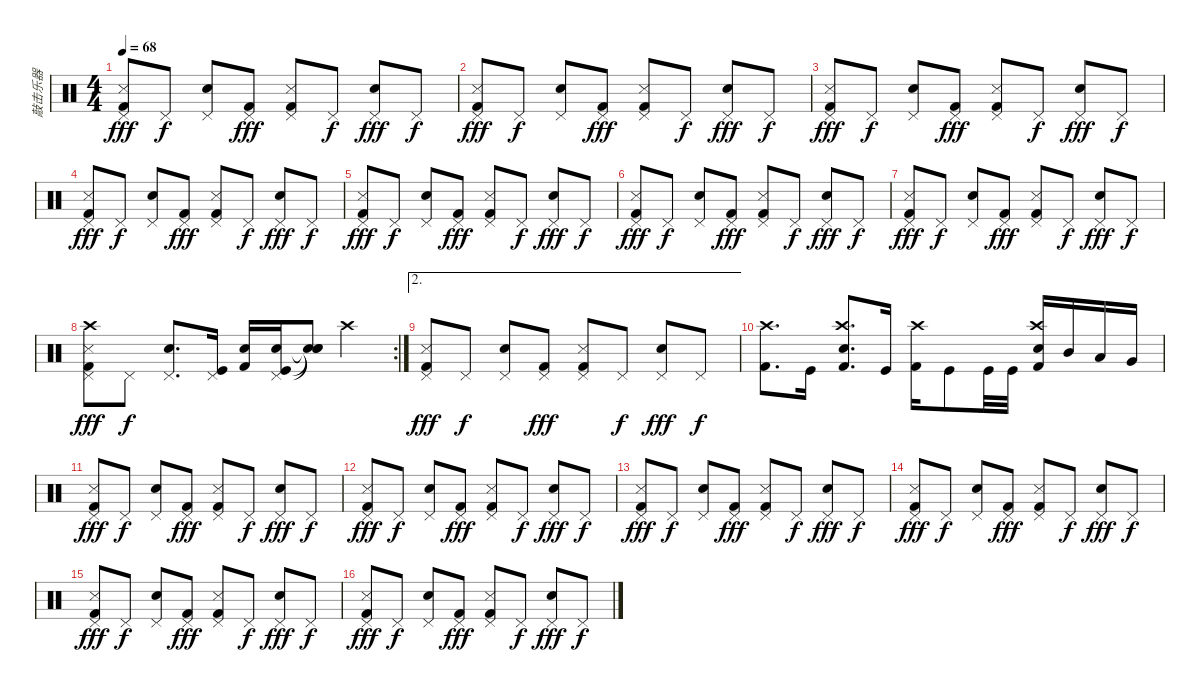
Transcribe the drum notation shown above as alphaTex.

\track ("敲击乐器" "敲击乐器") {instrument percussion}
\staff {score}
\articulation defaults
\ts (4 4)
\tempo 68
\clef neutral
\ks c
("Snare (side stick) 3" "Pedal Hi-Hat (hit)" "Kick (hit) 2").8{dy fff} "Pedal Hi-Hat (hit)".8{dy f} ("Hand Clap (hit)" "Pedal Hi-Hat (hit)").8 ("Pedal Hi-Hat (hit)" "Kick (hit) 2").8{dy fff} ("Snare (side stick) 3" "Pedal Hi-Hat (hit)" "Kick (hit) 2").8 "Pedal Hi-Hat (hit)".8{dy f} ("Hand Clap (hit)" "Pedal Hi-Hat (hit)").8{dy fff} "Pedal Hi-Hat (hit)".8{dy f} |
("Snare (side stick) 3" "Pedal Hi-Hat (hit)" "Kick (hit) 2").8{dy fff} "Pedal Hi-Hat (hit)".8{dy f} ("Hand Clap (hit)" "Pedal Hi-Hat (hit)").8 ("Pedal Hi-Hat (hit)" "Kick (hit) 2").8{dy fff} ("Snare (side stick) 3" "Pedal Hi-Hat (hit)" "Kick (hit) 2").8 "Pedal Hi-Hat (hit)".8{dy f} ("Hand Clap (hit)" "Pedal Hi-Hat (hit)").8{dy fff} "Pedal Hi-Hat (hit)".8{dy f} |
("Snare (side stick) 3" "Pedal Hi-Hat (hit)" "Kick (hit) 2").8{dy fff} "Pedal Hi-Hat (hit)".8{dy f} ("Hand Clap (hit)" "Pedal Hi-Hat (hit)").8 ("Pedal Hi-Hat (hit)" "Kick (hit) 2").8{dy fff} ("Snare (side stick) 3" "Pedal Hi-Hat (hit)" "Kick (hit) 2").8 "Pedal Hi-Hat (hit)".8{dy f} ("Hand Clap (hit)" "Pedal Hi-Hat (hit)").8{dy fff} "Pedal Hi-Hat (hit)".8{dy f} |
("Snare (side stick) 3" "Pedal Hi-Hat (hit)" "Kick (hit) 2").8{dy fff} "Pedal Hi-Hat (hit)".8{dy f} ("Hand Clap (hit)" "Pedal Hi-Hat (hit)").8 ("Pedal Hi-Hat (hit)" "Kick (hit) 2").8{dy fff} ("Snare (side stick) 3" "Pedal Hi-Hat (hit)" "Kick (hit) 2").8 "Pedal Hi-Hat (hit)".8{dy f} ("Hand Clap (hit)" "Pedal Hi-Hat (hit)").8{dy fff} "Pedal Hi-Hat (hit)".8{dy f} |
("Snare (side stick) 3" "Pedal Hi-Hat (hit)" "Kick (hit) 2").8{dy fff} "Pedal Hi-Hat (hit)".8{dy f} ("Hand Clap (hit)" "Pedal Hi-Hat (hit)").8 ("Pedal Hi-Hat (hit)" "Kick (hit) 2").8{dy fff} ("Snare (side stick) 3" "Pedal Hi-Hat (hit)" "Kick (hit) 2").8 "Pedal Hi-Hat (hit)".8{dy f} ("Hand Clap (hit)" "Pedal Hi-Hat (hit)").8{dy fff} "Pedal Hi-Hat (hit)".8{dy f} |
("Snare (side stick) 3" "Pedal Hi-Hat (hit)" "Kick (hit) 2").8{dy fff} "Pedal Hi-Hat (hit)".8{dy f} ("Hand Clap (hit)" "Pedal Hi-Hat (hit)").8 ("Pedal Hi-Hat (hit)" "Kick (hit) 2").8{dy fff} ("Snare (side stick) 3" "Pedal Hi-Hat (hit)" "Kick (hit) 2").8 "Pedal Hi-Hat (hit)".8{dy f} ("Hand Clap (hit)" "Pedal Hi-Hat (hit)").8{dy fff} "Pedal Hi-Hat (hit)".8{dy f} |
("Snare (side stick) 3" "Pedal Hi-Hat (hit)" "Kick (hit) 2").8{dy fff} "Pedal Hi-Hat (hit)".8{dy f} ("Hand Clap (hit)" "Pedal Hi-Hat (hit)").8 ("Pedal Hi-Hat (hit)" "Kick (hit) 2").8{dy fff} ("Snare (side stick) 3" "Pedal Hi-Hat (hit)" "Kick (hit) 2").8 "Pedal Hi-Hat (hit)".8{dy f} ("Hand Clap (hit)" "Pedal Hi-Hat (hit)").8{dy fff} "Pedal Hi-Hat (hit)".8{dy f} |
\rc 2
("Crash high (hit)" "Snare (side stick) 3" "Pedal Hi-Hat (hit)" "Kick (hit) 2").8{dy fff} "Pedal Hi-Hat (hit)".8{dy f} ("Hand Clap (hit)" "Pedal Hi-Hat (hit)").8{d} ("Pedal Hi-Hat (hit)" "Kick (hit)").16 ("Snare (hit) 2" "Kick (hit) 2").16 ("Snare (hit) 2" "Pedal Hi-Hat (hit)" "Kick (hit)").16 ("Snare (hit)"{t} "Snare (hit)"{t} "Snare (hit)"{t}).8 "Crash high (hit)".4 |
\ae 2
("Snare (side stick) 3" "Pedal Hi-Hat (hit)" "Kick (hit) 2").8{dy fff} "Pedal Hi-Hat (hit)".8{dy f} ("Hand Clap (hit)" "Pedal Hi-Hat (hit)").8 ("Pedal Hi-Hat (hit)" "Kick (hit) 2").8{dy fff} ("Snare (side stick) 3" "Pedal Hi-Hat (hit)" "Kick (hit) 2").8 "Pedal Hi-Hat (hit)".8{dy f} ("Hand Clap (hit)" "Pedal Hi-Hat (hit)").8{dy fff} "Pedal Hi-Hat (hit)".8{dy f} |
("Crash high (hit)" "Kick (hit) 2").8{d} "Kick (hit)".16 ("Crash high (hit)" "Snare (hit) 2" "Kick (hit) 2").8{d} "Kick (hit)".16 ("Crash high (hit)" "Kick (hit) 2").16 "Kick (hit)".8 "Kick (hit)".32 "Kick (hit)".32 ("Crash high (hit)" "Snare (hit) 2" "Kick (hit) 2").16 "Mid Tom (hit)".16 "Low Tom (hit)".16 "Very Low Tom (hit)".16 |
("Snare (side stick) 3" "Pedal Hi-Hat (hit)" "Kick (hit) 2").8{dy fff} "Pedal Hi-Hat (hit)".8{dy f} ("Hand Clap (hit)" "Pedal Hi-Hat (hit)").8 ("Pedal Hi-Hat (hit)" "Kick (hit) 2").8{dy fff} ("Snare (side stick) 3" "Pedal Hi-Hat (hit)" "Kick (hit) 2").8 "Pedal Hi-Hat (hit)".8{dy f} ("Hand Clap (hit)" "Pedal Hi-Hat (hit)").8{dy fff} "Pedal Hi-Hat (hit)".8{dy f} |
("Snare (side stick) 3" "Pedal Hi-Hat (hit)" "Kick (hit) 2").8{dy fff} "Pedal Hi-Hat (hit)".8{dy f} ("Hand Clap (hit)" "Pedal Hi-Hat (hit)").8 ("Pedal Hi-Hat (hit)" "Kick (hit) 2").8{dy fff} ("Snare (side stick) 3" "Pedal Hi-Hat (hit)" "Kick (hit) 2").8 "Pedal Hi-Hat (hit)".8{dy f} ("Hand Clap (hit)" "Pedal Hi-Hat (hit)").8{dy fff} "Pedal Hi-Hat (hit)".8{dy f} |
("Snare (side stick) 3" "Pedal Hi-Hat (hit)" "Kick (hit) 2").8{dy fff} "Pedal Hi-Hat (hit)".8{dy f} ("Hand Clap (hit)" "Pedal Hi-Hat (hit)").8 ("Pedal Hi-Hat (hit)" "Kick (hit) 2").8{dy fff} ("Snare (side stick) 3" "Pedal Hi-Hat (hit)" "Kick (hit) 2").8 "Pedal Hi-Hat (hit)".8{dy f} ("Hand Clap (hit)" "Pedal Hi-Hat (hit)").8{dy fff} "Pedal Hi-Hat (hit)".8{dy f} |
("Snare (side stick) 3" "Pedal Hi-Hat (hit)" "Kick (hit) 2").8{dy fff} "Pedal Hi-Hat (hit)".8{dy f} ("Hand Clap (hit)" "Pedal Hi-Hat (hit)").8 ("Pedal Hi-Hat (hit)" "Kick (hit) 2").8{dy fff} ("Snare (side stick) 3" "Pedal Hi-Hat (hit)" "Kick (hit) 2").8 "Pedal Hi-Hat (hit)".8{dy f} ("Hand Clap (hit)" "Pedal Hi-Hat (hit)").8{dy fff} "Pedal Hi-Hat (hit)".8{dy f} |
("Snare (side stick) 3" "Pedal Hi-Hat (hit)" "Kick (hit) 2").8{dy fff} "Pedal Hi-Hat (hit)".8{dy f} ("Hand Clap (hit)" "Pedal Hi-Hat (hit)").8 ("Pedal Hi-Hat (hit)" "Kick (hit) 2").8{dy fff} ("Snare (side stick) 3" "Pedal Hi-Hat (hit)" "Kick (hit) 2").8 "Pedal Hi-Hat (hit)".8{dy f} ("Hand Clap (hit)" "Pedal Hi-Hat (hit)").8{dy fff} "Pedal Hi-Hat (hit)".8{dy f} |
("Snare (side stick) 3" "Pedal Hi-Hat (hit)" "Kick (hit) 2").8{dy fff} "Pedal Hi-Hat (hit)".8{dy f} ("Hand Clap (hit)" "Pedal Hi-Hat (hit)").8 ("Pedal Hi-Hat (hit)" "Kick (hit) 2").8{dy fff} ("Snare (side stick) 3" "Pedal Hi-Hat (hit)" "Kick (hit) 2").8 "Pedal Hi-Hat (hit)".8{dy f} ("Hand Clap (hit)" "Pedal Hi-Hat (hit)").8{dy fff} "Pedal Hi-Hat (hit)".8{dy f}
